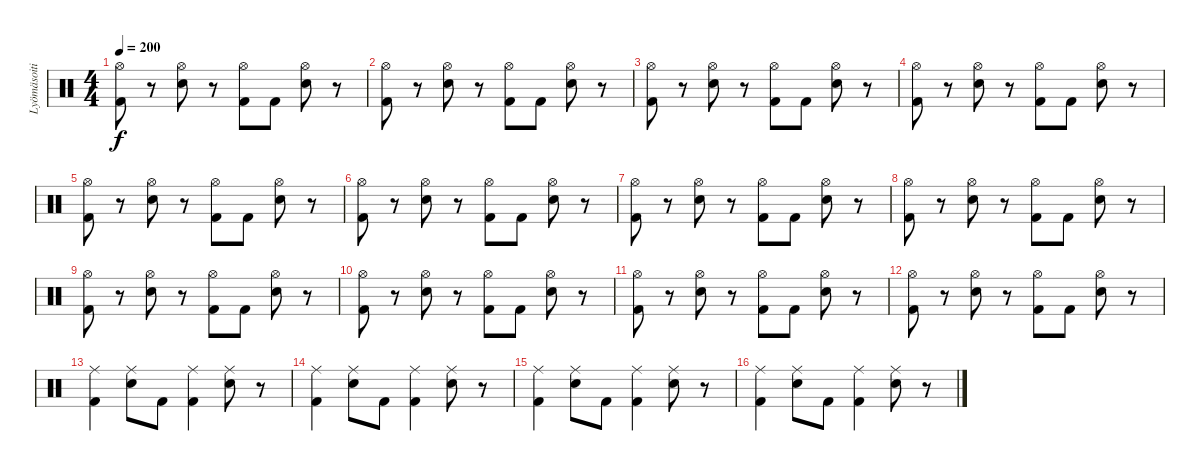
\track ("Lyömäsoitin" "Lyömäsoiti") {instrument percussion}
\staff {score}
\articulation defaults
\ts (4 4)
\tempo 200
\clef neutral
\ks c
("Hi-Hat (open)" "Kick (hit) 2").8{dy f} r.8 ("Hi-Hat (open)" "Snare (hit) 2").8 r.8 ("Hi-Hat (open)" "Kick (hit) 2").8 "Kick (hit) 2".8 ("Hi-Hat (open)" "Snare (hit) 2").8 r.8 |
("Hi-Hat (open)" "Kick (hit) 2").8 r.8 ("Hi-Hat (open)" "Snare (hit) 2").8 r.8 ("Hi-Hat (open)" "Kick (hit) 2").8 "Kick (hit) 2".8 ("Hi-Hat (open)" "Snare (hit) 2").8 r.8 |
("Hi-Hat (open)" "Kick (hit) 2").8 r.8 ("Hi-Hat (open)" "Snare (hit) 2").8 r.8 ("Hi-Hat (open)" "Kick (hit) 2").8 "Kick (hit) 2".8 ("Hi-Hat (open)" "Snare (hit) 2").8 r.8 |
("Hi-Hat (open)" "Kick (hit) 2").8 r.8 ("Hi-Hat (open)" "Snare (hit) 2").8 r.8 ("Hi-Hat (open)" "Kick (hit) 2").8 "Kick (hit) 2".8 ("Hi-Hat (open)" "Snare (hit) 2").8 r.8 |
("Hi-Hat (open)" "Kick (hit) 2").8 r.8 ("Hi-Hat (open)" "Snare (hit) 2").8 r.8 ("Hi-Hat (open)" "Kick (hit) 2").8 "Kick (hit) 2".8 ("Hi-Hat (open)" "Snare (hit) 2").8 r.8 |
("Hi-Hat (open)" "Kick (hit) 2").8 r.8 ("Hi-Hat (open)" "Snare (hit) 2").8 r.8 ("Hi-Hat (open)" "Kick (hit) 2").8 "Kick (hit) 2".8 ("Hi-Hat (open)" "Snare (hit) 2").8 r.8 |
("Hi-Hat (open)" "Kick (hit) 2").8 r.8 ("Hi-Hat (open)" "Snare (hit) 2").8 r.8 ("Hi-Hat (open)" "Kick (hit) 2").8 "Kick (hit) 2".8 ("Hi-Hat (open)" "Snare (hit) 2").8 r.8 |
("Hi-Hat (open)" "Kick (hit) 2").8 r.8 ("Hi-Hat (open)" "Snare (hit) 2").8 r.8 ("Hi-Hat (open)" "Kick (hit) 2").8 "Kick (hit) 2".8 ("Hi-Hat (open)" "Snare (hit) 2").8 r.8 |
("Hi-Hat (open)" "Kick (hit) 2").8 r.8 ("Hi-Hat (open)" "Snare (hit) 2").8 r.8 ("Hi-Hat (open)" "Kick (hit) 2").8 "Kick (hit) 2".8 ("Hi-Hat (open)" "Snare (hit) 2").8 r.8 |
("Hi-Hat (open)" "Kick (hit) 2").8 r.8 ("Hi-Hat (open)" "Snare (hit) 2").8 r.8 ("Hi-Hat (open)" "Kick (hit) 2").8 "Kick (hit) 2".8 ("Hi-Hat (open)" "Snare (hit) 2").8 r.8 |
("Hi-Hat (open)" "Kick (hit) 2").8 r.8 ("Hi-Hat (open)" "Snare (hit) 2").8 r.8 ("Hi-Hat (open)" "Kick (hit) 2").8 "Kick (hit) 2".8 ("Hi-Hat (open)" "Snare (hit) 2").8 r.8 |
("Hi-Hat (open)" "Kick (hit) 2").8 r.8 ("Hi-Hat (open)" "Snare (hit) 2").8 r.8 ("Hi-Hat (open)" "Kick (hit) 2").8 "Kick (hit) 2".8 ("Hi-Hat (open)" "Snare (hit) 2").8 r.8 |
("Ride (middle)" "Kick (hit) 2").4 ("Ride (middle)" "Snare (hit) 2").8 "Kick (hit) 2".8 ("Ride (middle)" "Kick (hit) 2").4 ("Ride (middle)" "Snare (hit) 2").8 r.8 |
("Ride (middle)" "Kick (hit) 2").4 ("Ride (middle)" "Snare (hit) 2").8 "Kick (hit) 2".8 ("Ride (middle)" "Kick (hit) 2").4 ("Ride (middle)" "Snare (hit) 2").8 r.8 |
("Ride (middle)" "Kick (hit) 2").4 ("Ride (middle)" "Snare (hit) 2").8 "Kick (hit) 2".8 ("Ride (middle)" "Kick (hit) 2").4 ("Ride (middle)" "Snare (hit) 2").8 r.8 |
("Ride (middle)" "Kick (hit) 2").4 ("Ride (middle)" "Snare (hit) 2").8 "Kick (hit) 2".8 ("Ride (middle)" "Kick (hit) 2").4 ("Ride (middle)" "Snare (hit) 2").8 r.8
